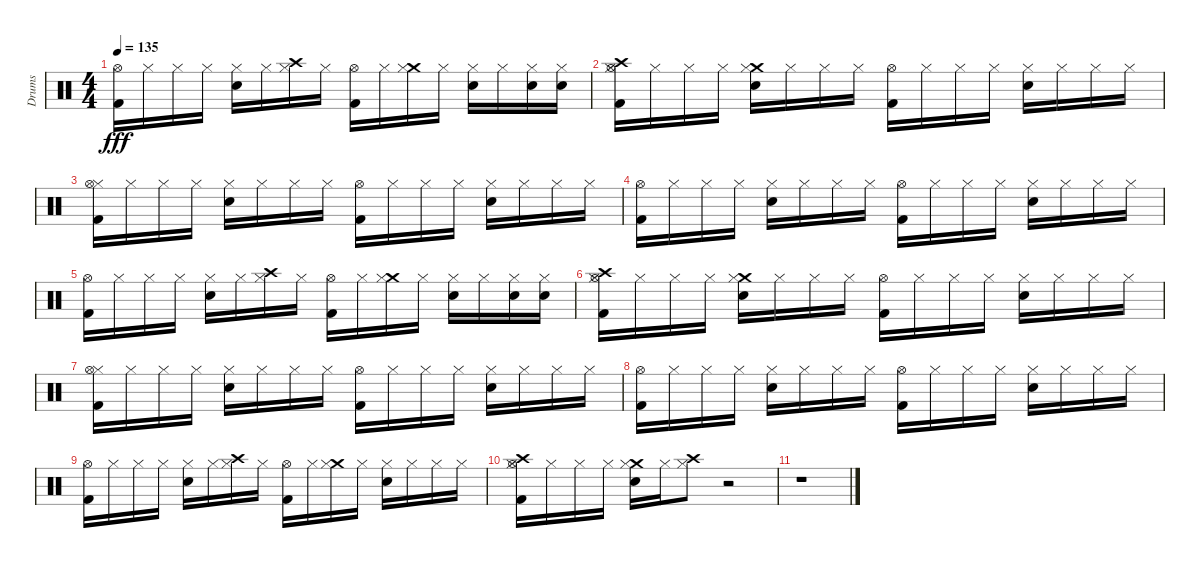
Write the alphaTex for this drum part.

\track ("Drums" "Drums") {instrument percussion}
\staff {score}
\articulation defaults
\ts (4 4)
\tempo 135
\clef neutral
\ks c
("Hi-Hat (open)" "Kick (hit) 2").16{dy fff} "Hi-Hat (closed)".16 "Hi-Hat (closed)".16 "Hi-Hat (closed)".16 ("Snare (hit) 2" "Hi-Hat (closed)").16 "Hi-Hat (closed)".16 ("Crash high (hit)" "Hi-Hat (closed)").16 "Hi-Hat (closed)".16 ("Kick (hit) 2" "Hi-Hat (open)").16 "Hi-Hat (closed)".16 ("Crash medium (hit)" "Hi-Hat (closed)").16 "Hi-Hat (closed)".16 ("Snare (hit) 2" "Hi-Hat (closed)").16 "Hi-Hat (closed)".16 ("Snare (hit) 2" "Hi-Hat (closed)").16 ("Snare (hit) 2" "Hi-Hat (closed)").16 |
("Hi-Hat (closed)" "Crash high (hit)" "Hi-Hat (open)" "Kick (hit) 2").16 "Hi-Hat (closed)".16 "Hi-Hat (closed)".16 "Hi-Hat (closed)".16 ("Crash medium (hit)" "Snare (hit) 2" "Hi-Hat (closed)").16 "Hi-Hat (closed)".16 "Hi-Hat (closed)".16 "Hi-Hat (closed)".16 ("Kick (hit) 2" "Hi-Hat (open)").16 "Hi-Hat (closed)".16 "Hi-Hat (closed)".16 "Hi-Hat (closed)".16 ("Snare (hit) 2" "Hi-Hat (closed)").16 "Hi-Hat (closed)".16 "Hi-Hat (closed)".16 "Hi-Hat (closed)".16 |
("Hi-Hat (closed)" "Hi-Hat (open)" "Kick (hit) 2").16 "Hi-Hat (closed)".16 "Hi-Hat (closed)".16 "Hi-Hat (closed)".16 ("Snare (hit) 2" "Hi-Hat (closed)").16 "Hi-Hat (closed)".16 "Hi-Hat (closed)".16 "Hi-Hat (closed)".16 ("Kick (hit) 2" "Hi-Hat (open)").16 "Hi-Hat (closed)".16 "Hi-Hat (closed)".16 "Hi-Hat (closed)".16 ("Snare (hit) 2" "Hi-Hat (closed)").16 "Hi-Hat (closed)".16 "Hi-Hat (closed)".16 "Hi-Hat (closed)".16 |
("Hi-Hat (open)" "Kick (hit) 2").16 "Hi-Hat (closed)".16 "Hi-Hat (closed)".16 "Hi-Hat (closed)".16 ("Snare (hit) 2" "Hi-Hat (closed)").16 "Hi-Hat (closed)".16 "Hi-Hat (closed)".16 "Hi-Hat (closed)".16 ("Kick (hit) 2" "Hi-Hat (open)").16 "Hi-Hat (closed)".16 "Hi-Hat (closed)".16 "Hi-Hat (closed)".16 ("Snare (hit) 2" "Hi-Hat (closed)").16 "Hi-Hat (closed)".16 "Hi-Hat (closed)".16 "Hi-Hat (closed)".16 |
("Hi-Hat (open)" "Kick (hit) 2").16 "Hi-Hat (closed)".16 "Hi-Hat (closed)".16 "Hi-Hat (closed)".16 ("Snare (hit) 2" "Hi-Hat (closed)").16 "Hi-Hat (closed)".16 ("Crash high (hit)" "Hi-Hat (closed)").16 "Hi-Hat (closed)".16 ("Kick (hit) 2" "Hi-Hat (open)").16 "Hi-Hat (closed)".16 ("Crash medium (hit)" "Hi-Hat (closed)").16 "Hi-Hat (closed)".16 ("Snare (hit) 2" "Hi-Hat (closed)").16 "Hi-Hat (closed)".16 ("Snare (hit) 2" "Hi-Hat (closed)").16 ("Snare (hit) 2" "Hi-Hat (closed)").16 |
("Hi-Hat (closed)" "Crash high (hit)" "Hi-Hat (open)" "Kick (hit) 2").16 "Hi-Hat (closed)".16 "Hi-Hat (closed)".16 "Hi-Hat (closed)".16 ("Crash medium (hit)" "Snare (hit) 2" "Hi-Hat (closed)").16 "Hi-Hat (closed)".16 "Hi-Hat (closed)".16 "Hi-Hat (closed)".16 ("Kick (hit) 2" "Hi-Hat (open)").16 "Hi-Hat (closed)".16 "Hi-Hat (closed)".16 "Hi-Hat (closed)".16 ("Snare (hit) 2" "Hi-Hat (closed)").16 "Hi-Hat (closed)".16 "Hi-Hat (closed)".16 "Hi-Hat (closed)".16 |
("Hi-Hat (closed)" "Hi-Hat (open)" "Kick (hit) 2").16 "Hi-Hat (closed)".16 "Hi-Hat (closed)".16 "Hi-Hat (closed)".16 ("Snare (hit) 2" "Hi-Hat (closed)").16 "Hi-Hat (closed)".16 "Hi-Hat (closed)".16 "Hi-Hat (closed)".16 ("Kick (hit) 2" "Hi-Hat (open)").16 "Hi-Hat (closed)".16 "Hi-Hat (closed)".16 "Hi-Hat (closed)".16 ("Snare (hit) 2" "Hi-Hat (closed)").16 "Hi-Hat (closed)".16 "Hi-Hat (closed)".16 "Hi-Hat (closed)".16 |
("Hi-Hat (open)" "Kick (hit) 2").16 "Hi-Hat (closed)".16 "Hi-Hat (closed)".16 "Hi-Hat (closed)".16 ("Snare (hit) 2" "Hi-Hat (closed)").16 "Hi-Hat (closed)".16 "Hi-Hat (closed)".16 "Hi-Hat (closed)".16 ("Kick (hit) 2" "Hi-Hat (open)").16 "Hi-Hat (closed)".16 "Hi-Hat (closed)".16 "Hi-Hat (closed)".16 ("Snare (hit) 2" "Hi-Hat (closed)").16 "Hi-Hat (closed)".16 "Hi-Hat (closed)".16 "Hi-Hat (closed)".16 |
("Hi-Hat (open)" "Kick (hit) 2").16 "Hi-Hat (closed)".16 "Hi-Hat (closed)".16 "Hi-Hat (closed)".16 ("Snare (hit) 2" "Hi-Hat (closed)").16 "Hi-Hat (closed)".16 ("Crash high (hit)" "Hi-Hat (closed)").16 "Hi-Hat (closed)".16 ("Kick (hit) 2" "Hi-Hat (open)").16 "Hi-Hat (closed)".16 ("Crash medium (hit)" "Hi-Hat (closed)").16 "Hi-Hat (closed)".16 ("Snare (hit) 2" "Hi-Hat (closed)").16 "Hi-Hat (closed)".16 "Hi-Hat (closed)".16 "Hi-Hat (closed)".16 |
("Hi-Hat (closed)" "Crash high (hit)" "Hi-Hat (open)" "Kick (hit) 2").16 "Hi-Hat (closed)".16 "Hi-Hat (closed)".16 "Hi-Hat (closed)".16 ("Crash medium (hit)" "Snare (hit) 2" "Hi-Hat (closed)").16 "Hi-Hat (closed)".16 ("Hi-Hat (closed)" "Crash high (hit)").8 r.2 |
r.1
